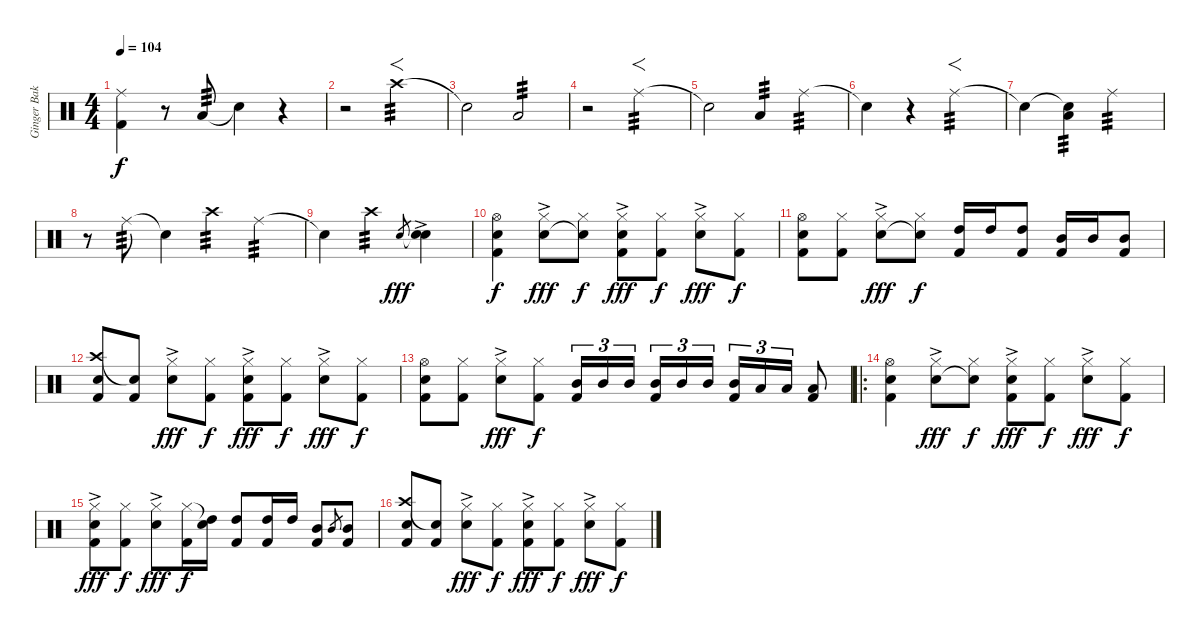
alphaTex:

\track ("Ginger Baker" "Ginger Bak") {instrument percussion}
\staff {score}
\articulation defaults
\ts (4 4)
\tempo 104
\clef neutral
\ks c
("Ride (middle)" "Kick (hit) 2").4{dy f} r.8 "Low Tom (hit)".8{tp 3} "Snare (hit)"{t}.4 r.4 |
r.2 "Crash high (hit)".2{f tp 3} |
"Snare (hit)"{t}.2 "Low Tom (hit)".2{tp 3} |
r.2 "Ride (middle)".2{f tp 3} |
"Snare (hit)"{t}.2 "Low Tom (hit)".4{tp 3} "Ride (middle)".4{tp 3} |
"Snare (hit)"{t}.4 r.4 "Ride (middle)".2{f tp 3} |
"Snare (hit)"{t}.4 ("Snare (hit)"{t} "Low Tom (hit)").4{tp 3} "Ride (middle)".2{tp 3} |
r.8 "Ride (middle)".8{tp 3} "Snare (hit)"{t}.4 "Crash high (hit)".4{tp 3} "Ride (middle)".4{tp 3} |
"Snare (hit)"{t}.4 "Crash high (hit)".2{tp 3} "Electric Snare (hit)".8{gr dy fff} ("Snare (hit)"{t} "Electric Snare (hit)"{ac}).4 |
("Hi-Hat (open)" "Electric Snare (hit)" "Kick (hit) 2").4{dy f} ("Hi-Hat (closed)"{ac} "Electric Snare (hit)").8{dy fff} ("Hi-Hat (closed)" "Snare (hit)"{t}).8{dy f} ("Hi-Hat (closed)"{ac} "Electric Snare (hit)" "Kick (hit) 2").8{dy fff} ("Hi-Hat (closed)" "Kick (hit) 2").8{dy f} ("Hi-Hat (closed)"{ac} "Electric Snare (hit)").8{dy fff} ("Hi-Hat (closed)" "Kick (hit) 2").8{dy f} |
("Hi-Hat (open)" "Electric Snare (hit)" "Kick (hit) 2").8 ("Hi-Hat (closed)" "Kick (hit) 2").8 ("Hi-Hat (closed)"{ac} "Electric Snare (hit)").8{dy fff} ("Hi-Hat (closed)" "Snare (hit)"{t}).8{dy f} ("High Tom (hit)" "Kick (hit) 2").16 "High Tom (hit)".16 ("High Tom (hit)" "Kick (hit) 2").8 ("Mid Tom (hit)" "Kick (hit) 2").16 "Mid Tom (hit)".16 ("Mid Tom (hit)" "Kick (hit) 2").8 |
("Crash high (hit)" "Electric Snare (hit)" "Kick (hit) 2").8 ("Snare (hit)"{t} "Kick (hit) 2").8 ("Hi-Hat (closed)"{ac} "Electric Snare (hit)").8{dy fff} ("Hi-Hat (closed)" "Kick (hit) 2").8{dy f} ("Hi-Hat (closed)"{ac} "Electric Snare (hit)" "Kick (hit) 2").8{dy fff} ("Hi-Hat (closed)" "Kick (hit) 2").8{dy f} ("Hi-Hat (closed)"{ac} "Electric Snare (hit)").8{dy fff} ("Hi-Hat (closed)" "Kick (hit) 2").8{dy f} |
("Hi-Hat (open)" "Electric Snare (hit)" "Kick (hit) 2").8 ("Hi-Hat (closed)" "Kick (hit) 2").8 ("Hi-Hat (closed)"{ac} "Electric Snare (hit)").8{dy fff} ("Hi-Hat (closed)" "Kick (hit) 2").8{dy f} ("Mid Tom (hit)" "Kick (hit) 2").16{tu (3 2)} "Mid Tom (hit)".16{tu (3 2)} "Mid Tom (hit)".16{tu (3 2)} ("Mid Tom (hit)" "Kick (hit) 2").16{tu (3 2)} "Mid Tom (hit)".16{tu (3 2)} "Mid Tom (hit)".16{tu (3 2)} ("Mid Tom (hit)" "Kick (hit) 2").16{tu (3 2)} "Low Tom (hit)".16{tu (3 2)} "Low Tom (hit)".16{tu (3 2)} ("Low Tom (hit)" "Kick (hit) 2").8 |
\ro
("Hi-Hat (open)" "Electric Snare (hit)" "Kick (hit) 2").4 ("Hi-Hat (closed)"{ac} "Electric Snare (hit)").8{dy fff} ("Hi-Hat (closed)" "Snare (hit)"{t}).8{dy f} ("Hi-Hat (closed)"{ac} "Electric Snare (hit)" "Kick (hit) 2").8{dy fff} ("Hi-Hat (closed)" "Kick (hit) 2").8{dy f} ("Hi-Hat (closed)"{ac} "Electric Snare (hit)").8{dy fff} ("Hi-Hat (closed)" "Kick (hit) 2").8{dy f} |
("Hi-Hat (closed)"{ac} "Electric Snare (hit)" "Kick (hit) 2").8{dy fff} ("Hi-Hat (closed)" "Kick (hit) 2").8{dy f} ("Hi-Hat (closed)"{ac} "Electric Snare (hit)").8{dy fff} ("Hi-Hat (closed)" "Kick (hit) 2").16{dy f} ("Snare (hit)"{t} "High Tom (hit)").16 ("High Tom (hit)" "Kick (hit) 2").8 ("High Tom (hit)" "Kick (hit) 2").16 "High Tom (hit)".16 ("Mid Tom (hit)" "Kick (hit) 2").8 "Mid Tom (hit)".8{gr} ("Mid Tom (hit)" "Kick (hit) 2").8 |
("Crash high (hit)" "Electric Snare (hit)" "Kick (hit) 2").8 ("Snare (hit)"{t} "Kick (hit) 2").8 ("Hi-Hat (closed)"{ac} "Electric Snare (hit)").8{dy fff} ("Hi-Hat (closed)" "Kick (hit) 2").8{dy f} ("Hi-Hat (closed)"{ac} "Electric Snare (hit)" "Kick (hit) 2").8{dy fff} ("Hi-Hat (closed)" "Kick (hit) 2").8{dy f} ("Hi-Hat (closed)"{ac} "Electric Snare (hit)").8{dy fff} ("Hi-Hat (closed)" "Kick (hit) 2").8{dy f}
